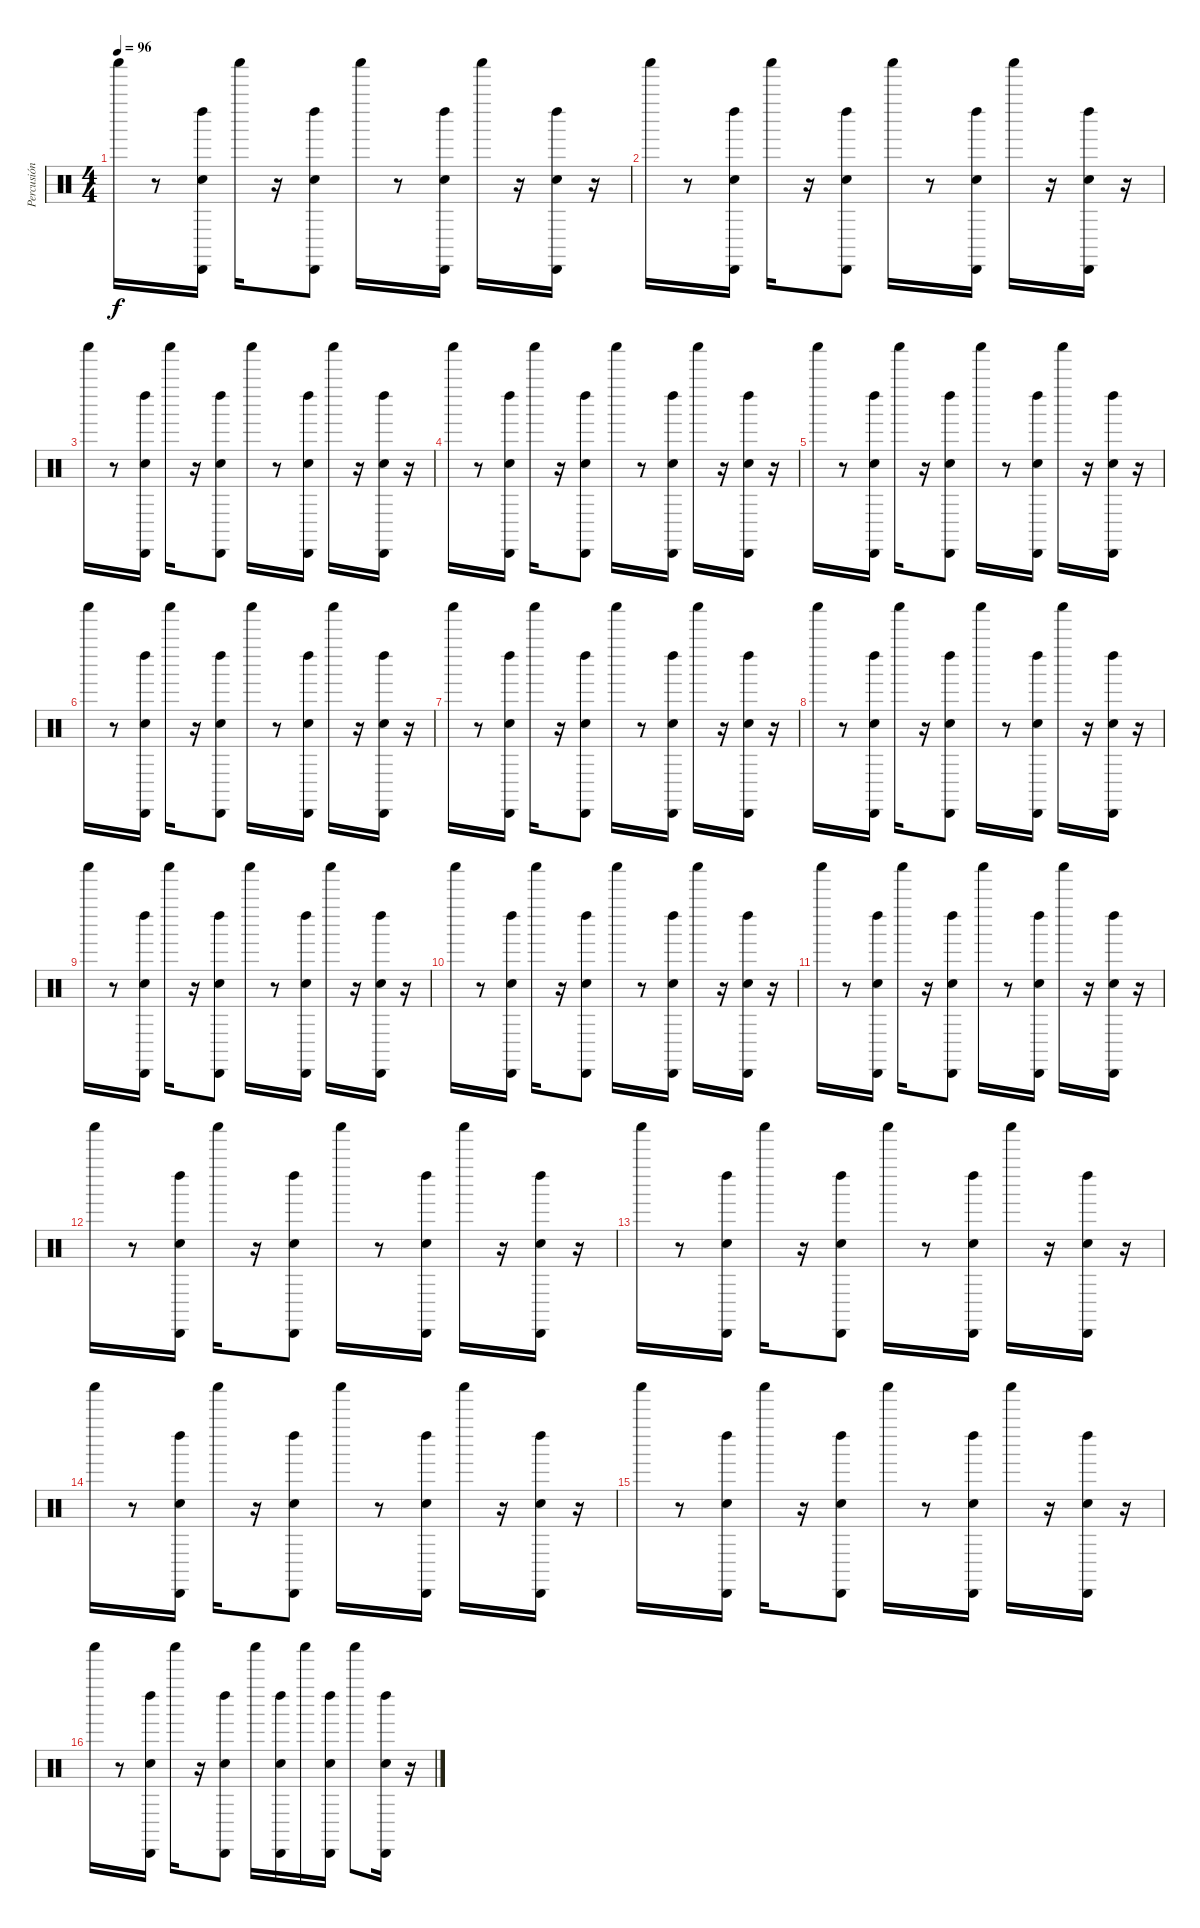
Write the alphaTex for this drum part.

\track ("Percusión" "Percusión") {instrument percussion}
\staff {score}
\articulation defaults
\ts (4 4)
\tempo 96
\clef neutral
\ks c "Shaker (hit)".16{dy f}
r.8 ("Cabasa (hit)" "Left Maraca (hit)" "Hand Clap (hit)").16 "Shaker (hit)".16 r.16 ("Left Maraca (hit)" "Cabasa (hit)" "Hand Clap (hit)").8 "Shaker (hit)".16 r.8 ("Cabasa (hit)" "Left Maraca (hit)" "Hand Clap (hit)").16 "Shaker (hit)".16 r.16 ("Left Maraca (hit)" "Cabasa (hit)" "Hand Clap (hit)").16 r.16 |
"Shaker (hit)".16 r.8 ("Cabasa (hit)" "Left Maraca (hit)" "Hand Clap (hit)").16 "Shaker (hit)".16 r.16 ("Left Maraca (hit)" "Cabasa (hit)" "Hand Clap (hit)").8 "Shaker (hit)".16 r.8 ("Cabasa (hit)" "Left Maraca (hit)" "Hand Clap (hit)").16 "Shaker (hit)".16 r.16 ("Left Maraca (hit)" "Cabasa (hit)" "Hand Clap (hit)").16 r.16 |
"Shaker (hit)".16 r.8 ("Cabasa (hit)" "Left Maraca (hit)" "Hand Clap (hit)").16 "Shaker (hit)".16 r.16 ("Left Maraca (hit)" "Cabasa (hit)" "Hand Clap (hit)").8 "Shaker (hit)".16 r.8 ("Cabasa (hit)" "Left Maraca (hit)" "Hand Clap (hit)").16 "Shaker (hit)".16 r.16 ("Left Maraca (hit)" "Cabasa (hit)" "Hand Clap (hit)").16 r.16 |
"Shaker (hit)".16 r.8 ("Cabasa (hit)" "Left Maraca (hit)" "Hand Clap (hit)").16 "Shaker (hit)".16 r.16 ("Left Maraca (hit)" "Cabasa (hit)" "Hand Clap (hit)").8 "Shaker (hit)".16 r.8 ("Cabasa (hit)" "Left Maraca (hit)" "Hand Clap (hit)").16 "Shaker (hit)".16 r.16 ("Left Maraca (hit)" "Cabasa (hit)" "Hand Clap (hit)").16 r.16 |
"Shaker (hit)".16 r.8 ("Cabasa (hit)" "Left Maraca (hit)" "Hand Clap (hit)").16 "Shaker (hit)".16 r.16 ("Left Maraca (hit)" "Cabasa (hit)" "Hand Clap (hit)").8 "Shaker (hit)".16 r.8 ("Cabasa (hit)" "Left Maraca (hit)" "Hand Clap (hit)").16 "Shaker (hit)".16 r.16 ("Left Maraca (hit)" "Cabasa (hit)" "Hand Clap (hit)").16 r.16 |
"Shaker (hit)".16 r.8 ("Cabasa (hit)" "Left Maraca (hit)" "Hand Clap (hit)").16 "Shaker (hit)".16 r.16 ("Left Maraca (hit)" "Cabasa (hit)" "Hand Clap (hit)").8 "Shaker (hit)".16 r.8 ("Cabasa (hit)" "Left Maraca (hit)" "Hand Clap (hit)").16 "Shaker (hit)".16 r.16 ("Left Maraca (hit)" "Cabasa (hit)" "Hand Clap (hit)").16 r.16 |
"Shaker (hit)".16 r.8 ("Cabasa (hit)" "Left Maraca (hit)" "Hand Clap (hit)").16 "Shaker (hit)".16 r.16 ("Left Maraca (hit)" "Cabasa (hit)" "Hand Clap (hit)").8 "Shaker (hit)".16 r.8 ("Cabasa (hit)" "Left Maraca (hit)" "Hand Clap (hit)").16 "Shaker (hit)".16 r.16 ("Left Maraca (hit)" "Cabasa (hit)" "Hand Clap (hit)").16 r.16 |
"Shaker (hit)".16 r.8 ("Cabasa (hit)" "Left Maraca (hit)" "Hand Clap (hit)").16 "Shaker (hit)".16 r.16 ("Left Maraca (hit)" "Cabasa (hit)" "Hand Clap (hit)").8 "Shaker (hit)".16 r.8 ("Cabasa (hit)" "Left Maraca (hit)" "Hand Clap (hit)").16 "Shaker (hit)".16 r.16 ("Left Maraca (hit)" "Cabasa (hit)" "Hand Clap (hit)").16 r.16 |
"Shaker (hit)".16 r.8 ("Cabasa (hit)" "Left Maraca (hit)" "Hand Clap (hit)").16 "Shaker (hit)".16 r.16 ("Left Maraca (hit)" "Cabasa (hit)" "Hand Clap (hit)").8 "Shaker (hit)".16 r.8 ("Cabasa (hit)" "Left Maraca (hit)" "Hand Clap (hit)").16 "Shaker (hit)".16 r.16 ("Left Maraca (hit)" "Cabasa (hit)" "Hand Clap (hit)").16 r.16 |
"Shaker (hit)".16 r.8 ("Cabasa (hit)" "Left Maraca (hit)" "Hand Clap (hit)").16 "Shaker (hit)".16 r.16 ("Left Maraca (hit)" "Cabasa (hit)" "Hand Clap (hit)").8 "Shaker (hit)".16 r.8 ("Cabasa (hit)" "Left Maraca (hit)" "Hand Clap (hit)").16 "Shaker (hit)".16 r.16 ("Left Maraca (hit)" "Cabasa (hit)" "Hand Clap (hit)").16 r.16 |
"Shaker (hit)".16 r.8 ("Cabasa (hit)" "Left Maraca (hit)" "Hand Clap (hit)").16 "Shaker (hit)".16 r.16 ("Left Maraca (hit)" "Cabasa (hit)" "Hand Clap (hit)").8 "Shaker (hit)".16 r.8 ("Cabasa (hit)" "Left Maraca (hit)" "Hand Clap (hit)").16 "Shaker (hit)".16 r.16 ("Left Maraca (hit)" "Cabasa (hit)" "Hand Clap (hit)").16 r.16 |
"Shaker (hit)".16 r.8 ("Cabasa (hit)" "Left Maraca (hit)" "Hand Clap (hit)").16 "Shaker (hit)".16 r.16 ("Left Maraca (hit)" "Cabasa (hit)" "Hand Clap (hit)").8 "Shaker (hit)".16 r.8 ("Cabasa (hit)" "Left Maraca (hit)" "Hand Clap (hit)").16 "Shaker (hit)".16 r.16 ("Left Maraca (hit)" "Cabasa (hit)" "Hand Clap (hit)").16 r.16 |
"Shaker (hit)".16 r.8 ("Cabasa (hit)" "Left Maraca (hit)" "Hand Clap (hit)").16 "Shaker (hit)".16 r.16 ("Left Maraca (hit)" "Cabasa (hit)" "Hand Clap (hit)").8 "Shaker (hit)".16 r.8 ("Cabasa (hit)" "Left Maraca (hit)" "Hand Clap (hit)").16 "Shaker (hit)".16 r.16 ("Left Maraca (hit)" "Cabasa (hit)" "Hand Clap (hit)").16 r.16 |
"Shaker (hit)".16 r.8 ("Cabasa (hit)" "Left Maraca (hit)" "Hand Clap (hit)").16 "Shaker (hit)".16 r.16 ("Left Maraca (hit)" "Cabasa (hit)" "Hand Clap (hit)").8 "Shaker (hit)".16 r.8 ("Cabasa (hit)" "Left Maraca (hit)" "Hand Clap (hit)").16 "Shaker (hit)".16 r.16 ("Left Maraca (hit)" "Cabasa (hit)" "Hand Clap (hit)").16 r.16 |
"Shaker (hit)".16 r.8 ("Cabasa (hit)" "Left Maraca (hit)" "Hand Clap (hit)").16 "Shaker (hit)".16 r.16 ("Left Maraca (hit)" "Cabasa (hit)" "Hand Clap (hit)").8 "Shaker (hit)".16 r.8 ("Cabasa (hit)" "Left Maraca (hit)" "Hand Clap (hit)").16 "Shaker (hit)".16 r.16 ("Left Maraca (hit)" "Cabasa (hit)" "Hand Clap (hit)").16 r.16 |
"Shaker (hit)".16 r.8 ("Cabasa (hit)" "Left Maraca (hit)" "Hand Clap (hit)").16 "Shaker (hit)".16 r.16 ("Left Maraca (hit)" "Cabasa (hit)" "Hand Clap (hit)").8 "Shaker (hit)".16 ("Cabasa (hit)" "Left Maraca (hit)" "Hand Clap (hit)").16 "Shaker (hit)".16 ("Left Maraca (hit)" "Cabasa (hit)" "Hand Clap (hit)").16 "Shaker (hit)".8 ("Left Maraca (hit)" "Cabasa (hit)" "Hand Clap (hit)").16 r.16
